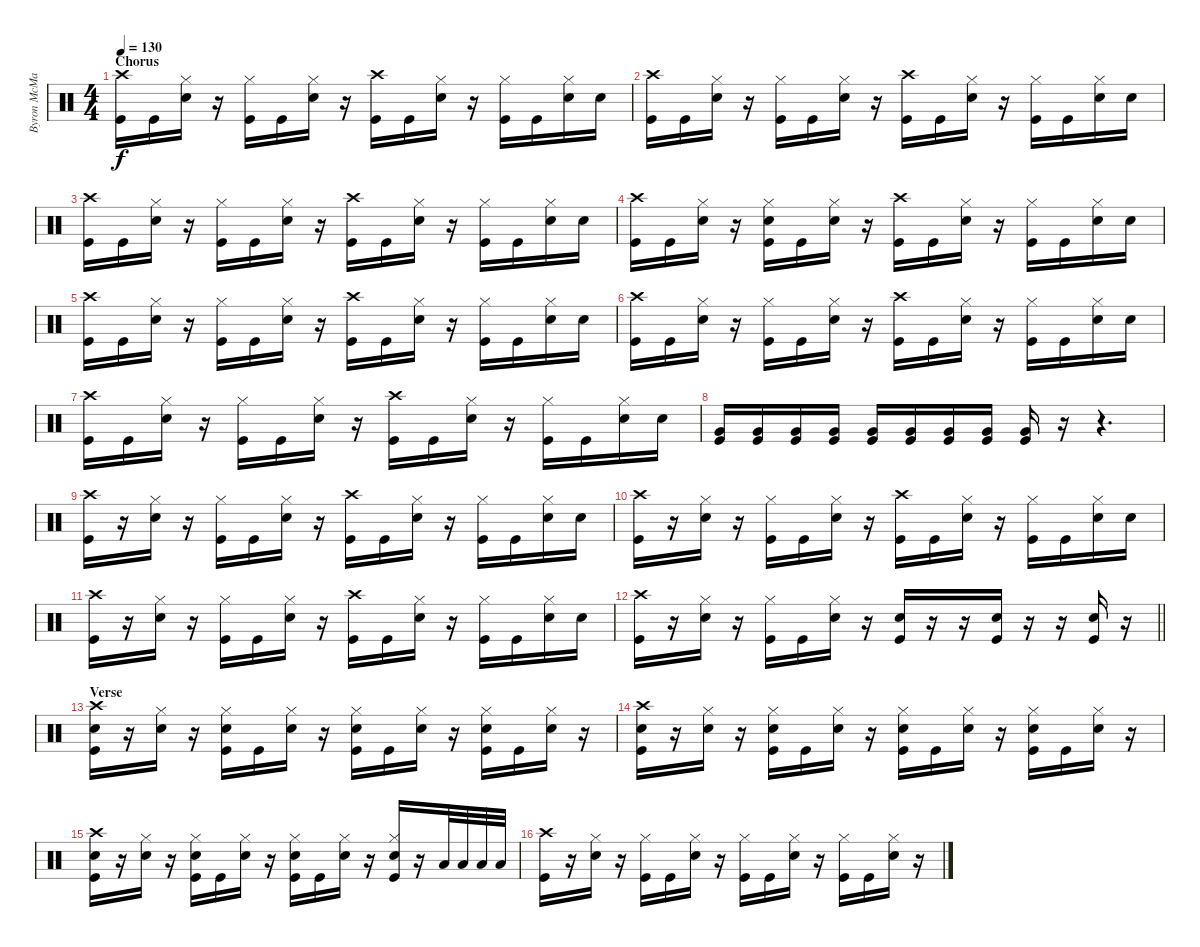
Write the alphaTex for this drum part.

\track ("Byron McMackin" "Byron McMa") {instrument percussion}
\staff {score}
\articulation defaults
\ts (4 4)
\section ("" "Chorus")
\tempo 130
\clef neutral
\ks c
("Crash high (hit)" "Kick (hit)").16{dy f} "Kick (hit)".16 ("Hi-Hat (closed)" "Electric Snare (hit)").16 r.16 ("Hi-Hat (closed)" "Kick (hit)").16 "Kick (hit)".16 ("Hi-Hat (closed)" "Electric Snare (hit)").16 r.16 ("Crash high (hit)" "Kick (hit)").16 "Kick (hit)".16 ("Hi-Hat (closed)" "Electric Snare (hit)").16 r.16 ("Hi-Hat (closed)" "Kick (hit)").16 "Kick (hit)".16 ("Hi-Hat (closed)" "Electric Snare (hit)").16 "Electric Snare (hit)".16 |
("Crash high (hit)" "Kick (hit)").16 "Kick (hit)".16 ("Hi-Hat (closed)" "Electric Snare (hit)").16 r.16 ("Hi-Hat (closed)" "Kick (hit)").16 "Kick (hit)".16 ("Hi-Hat (closed)" "Electric Snare (hit)").16 r.16 ("Crash high (hit)" "Kick (hit)").16 "Kick (hit)".16 ("Hi-Hat (closed)" "Electric Snare (hit)").16 r.16 ("Hi-Hat (closed)" "Kick (hit)").16 "Kick (hit)".16 ("Hi-Hat (closed)" "Electric Snare (hit)").16 "Electric Snare (hit)".16 |
("Crash high (hit)" "Kick (hit)").16 "Kick (hit)".16 ("Hi-Hat (closed)" "Electric Snare (hit)").16 r.16 ("Hi-Hat (closed)" "Kick (hit)").16 "Kick (hit)".16 ("Hi-Hat (closed)" "Electric Snare (hit)").16 r.16 ("Crash high (hit)" "Kick (hit)").16 "Kick (hit)".16 ("Hi-Hat (closed)" "Electric Snare (hit)").16 r.16 ("Hi-Hat (closed)" "Kick (hit)").16 "Kick (hit)".16 ("Hi-Hat (closed)" "Electric Snare (hit)").16 "Electric Snare (hit)".16 |
("Crash high (hit)" "Kick (hit)").16 "Kick (hit)".16 ("Hi-Hat (closed)" "Electric Snare (hit)").16 r.16 ("Hi-Hat (closed)" "Electric Snare (hit)" "Kick (hit)").16 "Kick (hit)".16 ("Hi-Hat (closed)" "Electric Snare (hit)").16 r.16 ("Crash high (hit)" "Kick (hit)").16 "Kick (hit)".16 ("Hi-Hat (closed)" "Electric Snare (hit)").16 r.16 ("Hi-Hat (closed)" "Kick (hit)").16 "Kick (hit)".16 ("Hi-Hat (closed)" "Electric Snare (hit)").16 "Electric Snare (hit)".16 |
("Crash high (hit)" "Kick (hit)").16 "Kick (hit)".16 ("Hi-Hat (closed)" "Electric Snare (hit)").16 r.16 ("Hi-Hat (closed)" "Kick (hit)").16 "Kick (hit)".16 ("Hi-Hat (closed)" "Electric Snare (hit)").16 r.16 ("Crash high (hit)" "Kick (hit)").16 "Kick (hit)".16 ("Hi-Hat (closed)" "Electric Snare (hit)").16 r.16 ("Hi-Hat (closed)" "Kick (hit)").16 "Kick (hit)".16 ("Hi-Hat (closed)" "Electric Snare (hit)").16 "Electric Snare (hit)".16 |
("Crash high (hit)" "Kick (hit)").16 "Kick (hit)".16 ("Hi-Hat (closed)" "Electric Snare (hit)").16 r.16 ("Hi-Hat (closed)" "Kick (hit)").16 "Kick (hit)".16 ("Hi-Hat (closed)" "Electric Snare (hit)").16 r.16 ("Crash high (hit)" "Kick (hit)").16 "Kick (hit)".16 ("Hi-Hat (closed)" "Electric Snare (hit)").16 r.16 ("Hi-Hat (closed)" "Kick (hit)").16 "Kick (hit)".16 ("Hi-Hat (closed)" "Electric Snare (hit)").16 "Electric Snare (hit)".16 |
("Crash high (hit)" "Kick (hit)").16 "Kick (hit)".16 ("Hi-Hat (closed)" "Electric Snare (hit)").16 r.16 ("Hi-Hat (closed)" "Kick (hit)").16 "Kick (hit)".16 ("Hi-Hat (closed)" "Electric Snare (hit)").16 r.16 ("Crash high (hit)" "Kick (hit)").16 "Kick (hit)".16 ("Hi-Hat (closed)" "Electric Snare (hit)").16 r.16 ("Hi-Hat (closed)" "Kick (hit)").16 "Kick (hit)".16 ("Hi-Hat (closed)" "Electric Snare (hit)").16 "Electric Snare (hit)".16 |
("Very Low Tom (hit)" "Kick (hit)").16 ("Very Low Tom (hit)" "Kick (hit)").16 ("Very Low Tom (hit)" "Kick (hit)").16 ("Very Low Tom (hit)" "Kick (hit)").16 ("Very Low Tom (hit)" "Kick (hit)").16 ("Very Low Tom (hit)" "Kick (hit)").16 ("Very Low Tom (hit)" "Kick (hit)").16 ("Very Low Tom (hit)" "Kick (hit)").16 ("Very Low Tom (hit)" "Kick (hit)").16 r.16 r.4{d} |
("Crash high (hit)" "Kick (hit)").16 r.16 ("Hi-Hat (closed)" "Electric Snare (hit)").16 r.16 ("Hi-Hat (closed)" "Kick (hit)").16 "Kick (hit)".16 ("Hi-Hat (closed)" "Electric Snare (hit)").16 r.16 ("Crash high (hit)" "Kick (hit)").16 "Kick (hit)".16 ("Hi-Hat (closed)" "Electric Snare (hit)").16 r.16 ("Hi-Hat (closed)" "Kick (hit)").16 "Kick (hit)".16 ("Hi-Hat (closed)" "Electric Snare (hit)").16 "Electric Snare (hit)".16 |
("Crash high (hit)" "Kick (hit)").16 r.16 ("Hi-Hat (closed)" "Electric Snare (hit)").16 r.16 ("Hi-Hat (closed)" "Kick (hit)").16 "Kick (hit)".16 ("Hi-Hat (closed)" "Electric Snare (hit)").16 r.16 ("Crash high (hit)" "Kick (hit)").16 "Kick (hit)".16 ("Hi-Hat (closed)" "Electric Snare (hit)").16 r.16 ("Hi-Hat (closed)" "Kick (hit)").16 "Kick (hit)".16 ("Hi-Hat (closed)" "Electric Snare (hit)").16 "Electric Snare (hit)".16 |
("Crash high (hit)" "Kick (hit)").16 r.16 ("Hi-Hat (closed)" "Electric Snare (hit)").16 r.16 ("Hi-Hat (closed)" "Kick (hit)").16 "Kick (hit)".16 ("Hi-Hat (closed)" "Electric Snare (hit)").16 r.16 ("Crash high (hit)" "Kick (hit)").16 "Kick (hit)".16 ("Hi-Hat (closed)" "Electric Snare (hit)").16 r.16 ("Hi-Hat (closed)" "Kick (hit)").16 "Kick (hit)".16 ("Hi-Hat (closed)" "Electric Snare (hit)").16 "Electric Snare (hit)".16 |
\barLineRight lightlight
("Crash high (hit)" "Kick (hit)").16 r.16 ("Hi-Hat (closed)" "Electric Snare (hit)").16 r.16 ("Hi-Hat (closed)" "Kick (hit)").16 "Kick (hit)".16 ("Hi-Hat (closed)" "Electric Snare (hit)").16 r.16 ("Electric Snare (hit)" "Kick (hit)").16 r.16 r.16 ("Electric Snare (hit)" "Kick (hit)").16 r.16 r.16 ("Electric Snare (hit)" "Kick (hit)").16 r.16 |
\section ("" "Verse")
("Crash high (hit)" "Electric Snare (hit)" "Kick (hit)").16 r.16 ("Hi-Hat (closed)" "Electric Snare (hit)").16 r.16 ("Hi-Hat (closed)" "Electric Snare (hit)" "Kick (hit)").16 "Kick (hit)".16 ("Hi-Hat (closed)" "Electric Snare (hit)").16 r.16 ("Hi-Hat (closed)" "Electric Snare (hit)" "Kick (hit)").16 "Kick (hit)".16 ("Hi-Hat (closed)" "Electric Snare (hit)").16 r.16 ("Hi-Hat (closed)" "Electric Snare (hit)" "Kick (hit)").16 "Kick (hit)".16 ("Hi-Hat (closed)" "Electric Snare (hit)").16 r.16 |
("Crash high (hit)" "Electric Snare (hit)" "Kick (hit)").16 r.16 ("Hi-Hat (closed)" "Electric Snare (hit)").16 r.16 ("Hi-Hat (closed)" "Electric Snare (hit)" "Kick (hit)").16 "Kick (hit)".16 ("Hi-Hat (closed)" "Electric Snare (hit)").16 r.16 ("Hi-Hat (closed)" "Electric Snare (hit)" "Kick (hit)").16 "Kick (hit)".16 ("Hi-Hat (closed)" "Electric Snare (hit)").16 r.16 ("Hi-Hat (closed)" "Electric Snare (hit)" "Kick (hit)").16 "Kick (hit)".16 ("Hi-Hat (closed)" "Electric Snare (hit)").16 r.16 |
("Crash high (hit)" "Electric Snare (hit)" "Kick (hit)").16 r.16 ("Hi-Hat (closed)" "Electric Snare (hit)").16 r.16 ("Hi-Hat (closed)" "Electric Snare (hit)" "Kick (hit)").16 "Kick (hit)".16 ("Hi-Hat (closed)" "Electric Snare (hit)").16 r.16 ("Hi-Hat (closed)" "Electric Snare (hit)" "Kick (hit)").16 "Kick (hit)".16 ("Hi-Hat (closed)" "Electric Snare (hit)").16 r.16 ("Hi-Hat (closed)" "Electric Snare (hit)" "Kick (hit)").16 r.16 "Low Tom (hit)".32 "Low Tom (hit)".32 "Low Tom (hit)".32 "Low Tom (hit)".32 |
("Crash high (hit)" "Kick (hit)").16 r.16 ("Hi-Hat (closed)" "Electric Snare (hit)").16 r.16 ("Hi-Hat (closed)" "Kick (hit)").16 "Kick (hit)".16 ("Hi-Hat (closed)" "Electric Snare (hit)").16 r.16 ("Hi-Hat (closed)" "Kick (hit)").16 "Kick (hit)".16 ("Hi-Hat (closed)" "Electric Snare (hit)").16 r.16 ("Hi-Hat (closed)" "Kick (hit)").16 "Kick (hit)".16 ("Hi-Hat (closed)" "Electric Snare (hit)").16 r.16
